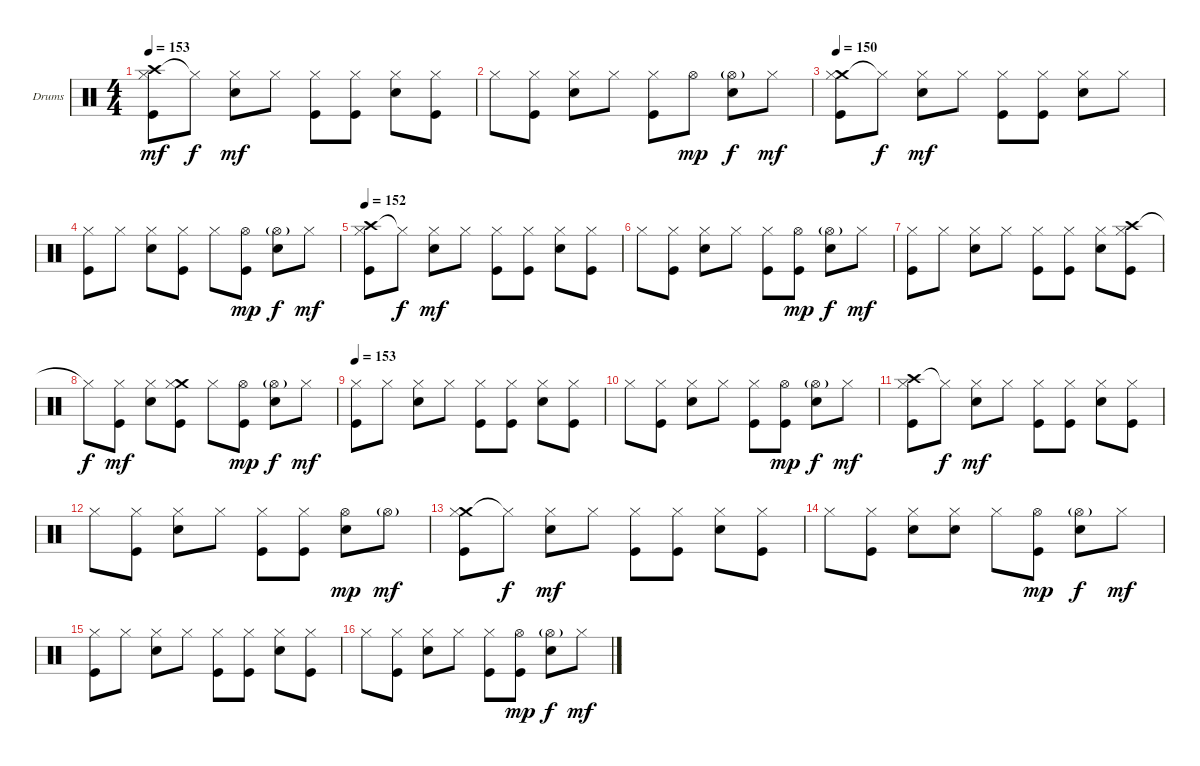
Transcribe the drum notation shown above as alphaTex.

\bracketExtendMode groupsimilarinstruments
\firstSystemTrackNameOrientation horizontal
\otherSystemsTrackNameOrientation horizontal
\track ("Drumkit" "Drums") {instrument percussion}
\staff {score}
\articulation defaults
\ts (4 4)
\tempo 153
\clef neutral
\ks c
("Crash high (hit)" "Hi-Hat (closed)" "Kick (hit)").8{dy mf} "Hi-Hat (closed)"{t}.8{dy f} ("Hi-Hat (closed)" "Snare (hit) 2").8{dy mf} "Hi-Hat (closed)".8 ("Hi-Hat (closed)" "Kick (hit)").8 ("Hi-Hat (closed)" "Kick (hit)").8 ("Hi-Hat (closed)" "Snare (hit) 2").8 ("Hi-Hat (closed)" "Kick (hit)").8 |
"Hi-Hat (closed)".8 ("Hi-Hat (closed)" "Kick (hit)").8 ("Hi-Hat (closed)" "Snare (hit) 2").8 "Hi-Hat (closed)".8 ("Hi-Hat (closed)" "Kick (hit)").8 "Hi-Hat (open)".8{dy mp} ("Hi-Hat (open)"{g} "Snare (hit) 2").8{dy f} "Hi-Hat (closed)".8{dy mf} |
\tempo 150
("Crash medium (hit)" "Hi-Hat (closed)" "Kick (hit)").8 "Hi-Hat (closed)"{t}.8{dy f} ("Hi-Hat (closed)" "Snare (hit) 2").8{dy mf} "Hi-Hat (closed)".8 ("Hi-Hat (closed)" "Kick (hit)").8 ("Hi-Hat (closed)" "Kick (hit)").8 ("Hi-Hat (closed)" "Snare (hit) 2").8 "Hi-Hat (closed)".8 |
("Hi-Hat (closed)" "Kick (hit)").8 "Hi-Hat (closed)".8 ("Hi-Hat (closed)" "Snare (hit) 2").8 ("Hi-Hat (closed)" "Kick (hit)").8 "Hi-Hat (closed)".8 ("Hi-Hat (open)" "Kick (hit)").8{dy mp} ("Hi-Hat (open)"{g} "Snare (hit) 2").8{dy f} "Hi-Hat (closed)".8{dy mf} |
\tempo 152
("Crash high (hit)" "Hi-Hat (closed)" "Kick (hit)").8 "Hi-Hat (closed)"{t}.8{dy f} ("Hi-Hat (closed)" "Snare (hit) 2").8{dy mf} "Hi-Hat (closed)".8 ("Hi-Hat (closed)" "Kick (hit)").8 ("Hi-Hat (closed)" "Kick (hit)").8 ("Hi-Hat (closed)" "Snare (hit) 2").8 ("Hi-Hat (closed)" "Kick (hit)").8 |
"Hi-Hat (closed)".8 ("Hi-Hat (closed)" "Kick (hit)").8 ("Hi-Hat (closed)" "Snare (hit) 2").8 "Hi-Hat (closed)".8 ("Hi-Hat (closed)" "Kick (hit)").8 ("Hi-Hat (open)" "Kick (hit)").8{dy mp} ("Hi-Hat (open)"{g} "Snare (hit) 2").8{dy f} "Hi-Hat (closed)".8{dy mf} |
("Hi-Hat (closed)" "Kick (hit)").8 "Hi-Hat (closed)".8 ("Hi-Hat (closed)" "Snare (hit) 2").8 "Hi-Hat (closed)".8 ("Hi-Hat (closed)" "Kick (hit)").8 ("Hi-Hat (closed)" "Kick (hit)").8 ("Hi-Hat (closed)" "Snare (hit) 2").8 ("Crash high (hit)" "Hi-Hat (closed)" "Kick (hit)").8 |
"Hi-Hat (closed)"{t}.8{dy f} ("Hi-Hat (closed)" "Kick (hit)").8{dy mf} ("Hi-Hat (closed)" "Snare (hit) 2").8 ("Crash medium (hit)" "Hi-Hat (closed)" "Kick (hit)").8 "Hi-Hat (closed)".8 ("Hi-Hat (open)" "Kick (hit)").8{dy mp} ("Hi-Hat (open)"{g} "Snare (hit) 2").8{dy f} "Hi-Hat (closed)".8{dy mf} |
\tempo 153
("Hi-Hat (closed)" "Kick (hit)").8 "Hi-Hat (closed)".8 ("Hi-Hat (closed)" "Snare (hit) 2").8 "Hi-Hat (closed)".8 ("Hi-Hat (closed)" "Kick (hit)").8 ("Hi-Hat (closed)" "Kick (hit)").8 ("Hi-Hat (closed)" "Snare (hit) 2").8 ("Hi-Hat (closed)" "Kick (hit)").8 |
"Hi-Hat (closed)".8 ("Hi-Hat (closed)" "Kick (hit)").8 ("Hi-Hat (closed)" "Snare (hit) 2").8 "Hi-Hat (closed)".8 ("Hi-Hat (closed)" "Kick (hit)").8 ("Hi-Hat (open)" "Kick (hit)").8{dy mp} ("Hi-Hat (open)"{g} "Snare (hit) 2").8{dy f} "Hi-Hat (closed)".8{dy mf} |
("Crash high (hit)" "Hi-Hat (closed)" "Kick (hit)").8 "Hi-Hat (closed)"{t}.8{dy f} ("Hi-Hat (closed)" "Snare (hit) 2").8{dy mf} "Hi-Hat (closed)".8 ("Hi-Hat (closed)" "Kick (hit)").8 ("Hi-Hat (closed)" "Kick (hit)").8 ("Hi-Hat (closed)" "Snare (hit) 2").8 ("Hi-Hat (closed)" "Kick (hit)").8 |
"Hi-Hat (closed)".8 ("Hi-Hat (closed)" "Kick (hit)").8 ("Hi-Hat (closed)" "Snare (hit) 2").8 "Hi-Hat (closed)".8 ("Hi-Hat (closed)" "Kick (hit)").8 ("Hi-Hat (closed)" "Kick (hit)").8 ("Hi-Hat (open)" "Snare (hit) 2").8{dy mp} "Hi-Hat (open)"{g}.8{dy mf} |
("Crash medium (hit)" "Hi-Hat (closed)" "Kick (hit)").8 "Hi-Hat (closed)"{t}.8{dy f} ("Hi-Hat (closed)" "Snare (hit) 2").8{dy mf} "Hi-Hat (closed)".8 ("Hi-Hat (closed)" "Kick (hit)").8 ("Hi-Hat (closed)" "Kick (hit)").8 ("Hi-Hat (closed)" "Snare (hit) 2").8 ("Hi-Hat (closed)" "Kick (hit)").8 |
"Hi-Hat (closed)".8 ("Hi-Hat (closed)" "Kick (hit)").8 ("Hi-Hat (closed)" "Snare (hit) 2").8 ("Hi-Hat (closed)" "Snare (hit) 2").8 "Hi-Hat (closed)".8 ("Hi-Hat (open)" "Kick (hit)").8{dy mp} ("Hi-Hat (open)"{g} "Snare (hit) 2").8{dy f} "Hi-Hat (closed)".8{dy mf} |
("Hi-Hat (closed)" "Kick (hit)").8 "Hi-Hat (closed)".8 ("Hi-Hat (closed)" "Snare (hit) 2").8 "Hi-Hat (closed)".8 ("Hi-Hat (closed)" "Kick (hit)").8 ("Hi-Hat (closed)" "Kick (hit)").8 ("Hi-Hat (closed)" "Snare (hit) 2").8 ("Hi-Hat (closed)" "Kick (hit)").8 |
"Hi-Hat (closed)".8 ("Hi-Hat (closed)" "Kick (hit)").8 ("Hi-Hat (closed)" "Snare (hit) 2").8 "Hi-Hat (closed)".8 ("Hi-Hat (closed)" "Kick (hit)").8 ("Hi-Hat (open)" "Kick (hit)").8{dy mp} ("Hi-Hat (open)"{g} "Snare (hit) 2").8{dy f} "Hi-Hat (closed)".8{dy mf}
